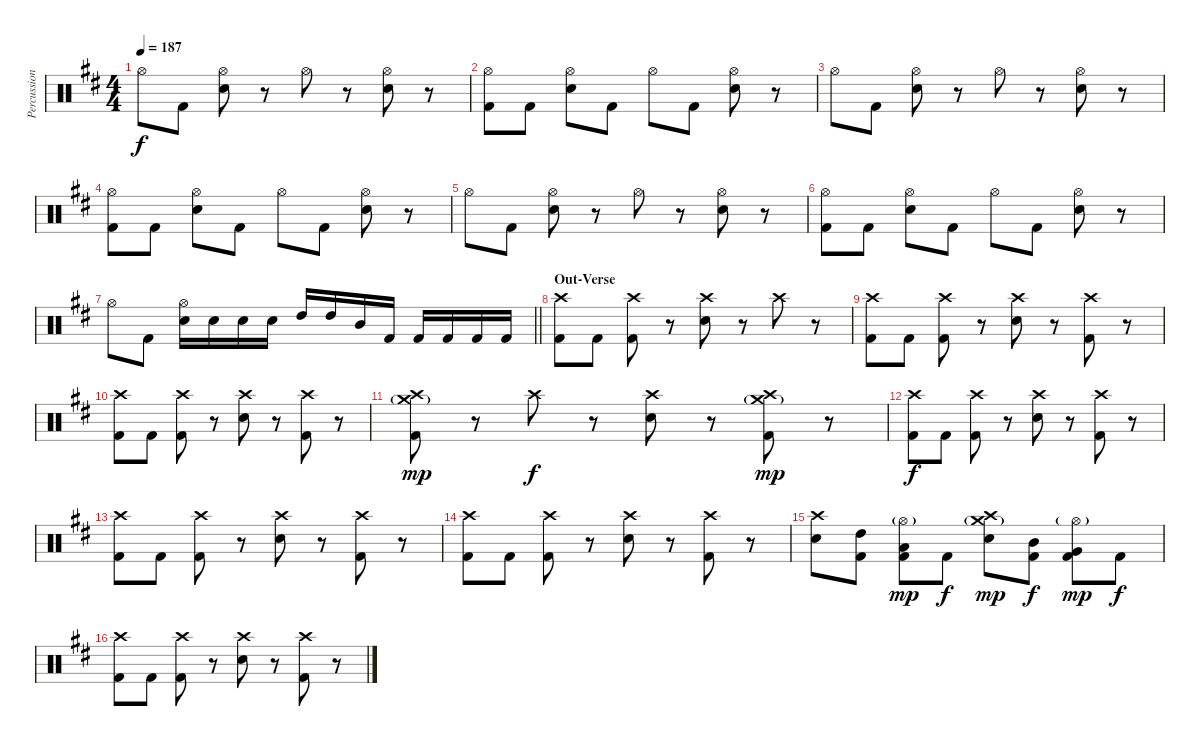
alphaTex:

\track ("Percussion" "Percussion") {instrument percussion}
\staff {score}
\articulation defaults
\ts (4 4)
\tempo 187
\clef neutral
\ks d "Hi-Hat (open)".8{dy f} "Kick (hit) 2".8
("Hi-Hat (open)" "Snare (hit) 2").8 r.8 "Hi-Hat (open)".8 r.8 ("Hi-Hat (open)" "Snare (hit) 2").8 r.8 |
("Hi-Hat (open)" "Kick (hit) 2").8 "Kick (hit) 2".8 ("Hi-Hat (open)" "Snare (hit) 2").8 "Kick (hit) 2".8 "Hi-Hat (open)".8 "Kick (hit) 2".8 ("Hi-Hat (open)" "Snare (hit) 2").8 r.8 |
"Hi-Hat (open)".8 "Kick (hit) 2".8 ("Hi-Hat (open)" "Snare (hit) 2").8 r.8 "Hi-Hat (open)".8 r.8 ("Hi-Hat (open)" "Snare (hit) 2").8 r.8 |
("Hi-Hat (open)" "Kick (hit) 2").8 "Kick (hit) 2".8 ("Hi-Hat (open)" "Snare (hit) 2").8 "Kick (hit) 2".8 "Hi-Hat (open)".8 "Kick (hit) 2".8 ("Hi-Hat (open)" "Snare (hit) 2").8 r.8 |
"Hi-Hat (open)".8 "Kick (hit) 2".8 ("Hi-Hat (open)" "Snare (hit) 2").8 r.8 "Hi-Hat (open)".8 r.8 ("Hi-Hat (open)" "Snare (hit) 2").8 r.8 |
("Hi-Hat (open)" "Kick (hit) 2").8 "Kick (hit) 2".8 ("Hi-Hat (open)" "Snare (hit) 2").8 "Kick (hit) 2".8 "Hi-Hat (open)".8 "Kick (hit) 2".8 ("Hi-Hat (open)" "Snare (hit) 2").8 r.8 |
\barLineRight lightlight "Hi-Hat (open)".8 "Kick (hit) 2".8
("Hi-Hat (open)" "Snare (hit) 2").16 "Snare (hit) 2".16 "Snare (hit) 2".16 "Snare (hit) 2".16 "High Tom (hit)".16 "High Tom (hit)".16 "Mid Tom (hit)".16 "Kick (hit) 2".16 "Kick (hit) 2".16 "Kick (hit) 2".16 "Kick (hit) 2".16 "Kick (hit) 2".16 |
\section ("" "Out-Verse")
("Crash high (hit)" "Kick (hit) 2").8 "Kick (hit) 2".8 ("Crash high (hit)" "Kick (hit) 2").8 r.8 ("Crash high (hit)" "Snare (hit) 2").8 r.8 "Crash high (hit)".8 r.8 |
("Crash high (hit)" "Kick (hit) 2").8 "Kick (hit) 2".8 ("Crash high (hit)" "Kick (hit) 2").8 r.8 ("Crash high (hit)" "Snare (hit) 2").8 r.8 ("Crash high (hit)" "Kick (hit) 2").8 r.8 |
("Crash high (hit)" "Kick (hit) 2").8 "Kick (hit) 2".8 ("Crash high (hit)" "Kick (hit) 2").8 r.8 ("Crash high (hit)" "Snare (hit) 2").8 r.8 ("Crash high (hit)" "Kick (hit) 2").8 r.8 |
("Crash medium (hit)"{g} "Crash high (hit)" "Kick (hit) 2").8{dy mp} r.8 "Crash high (hit)".8{dy f} r.8 ("Crash high (hit)" "Snare (hit) 2").8 r.8 ("Crash medium (hit)"{g} "Crash high (hit)" "Kick (hit) 2").8{dy mp} r.8 |
("Crash high (hit)" "Kick (hit) 2").8{dy f} "Kick (hit) 2".8 ("Crash high (hit)" "Kick (hit) 2").8 r.8 ("Crash high (hit)" "Snare (hit) 2").8 r.8 ("Crash high (hit)" "Kick (hit) 2").8 r.8 |
("Crash high (hit)" "Kick (hit) 2").8 "Kick (hit) 2".8 ("Crash high (hit)" "Kick (hit) 2").8 r.8 ("Crash high (hit)" "Snare (hit) 2").8 r.8 ("Crash high (hit)" "Kick (hit) 2").8 r.8 |
("Crash high (hit)" "Kick (hit) 2").8 "Kick (hit) 2".8 ("Crash high (hit)" "Kick (hit) 2").8 r.8 ("Crash high (hit)" "Snare (hit) 2").8 r.8 ("Crash high (hit)" "Kick (hit) 2").8 r.8 |
("Crash high (hit)" "Snare (hit) 2").8 ("High Tom (hit)" "Kick (hit) 2").8 ("Hi-Hat (open)"{g} "Low Tom (hit)" "Kick (hit) 2").8{dy mp} "Kick (hit) 2".8{dy f} ("Crash medium (hit)"{g} "Crash high (hit)" "Snare (hit) 2").8{dy mp} ("Mid Tom (hit)" "Kick (hit) 2").8{dy f} ("Hi-Hat (open)"{g} "Very Low Tom (hit)" "Kick (hit) 2").8{dy mp} "Kick (hit) 2".8{dy f} |
("Crash high (hit)" "Kick (hit) 2").8 "Kick (hit) 2".8 ("Crash high (hit)" "Kick (hit) 2").8 r.8 ("Crash high (hit)" "Snare (hit) 2").8 r.8 ("Crash high (hit)" "Kick (hit) 2").8 r.8
